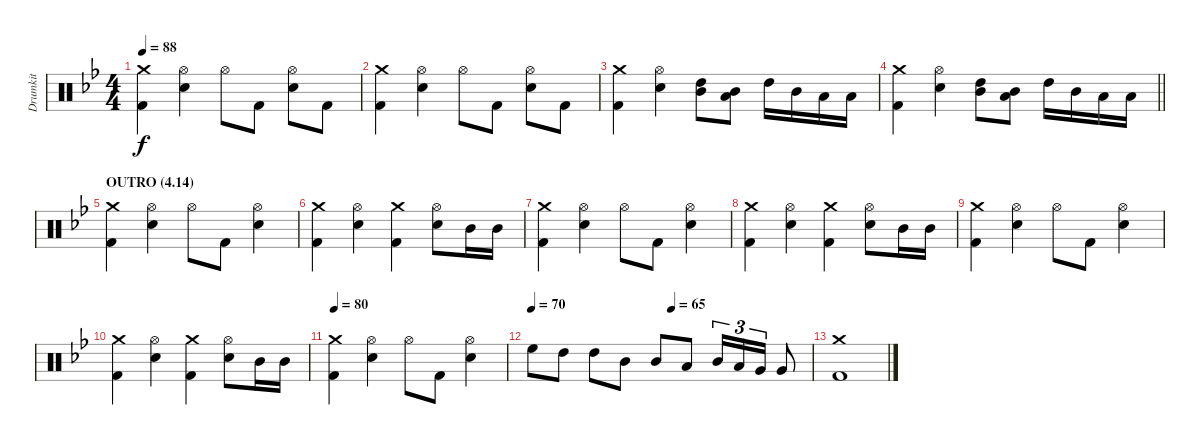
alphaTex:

\track ("Drumkit" "Drumkit") {instrument percussion}
\staff {score}
\articulation defaults
\ts (4 4)
\tempo 88
\clef neutral
\ks bb
("Kick (hit) 2" "Crash medium (hit)").4{dy f} ("Snare (hit) 2" "Hi-Hat (open)").4 "Hi-Hat (open)".8 "Kick (hit) 2".8 ("Snare (hit) 2" "Hi-Hat (open)").8 "Kick (hit) 2".8 |
("Kick (hit) 2" "Crash medium (hit)").4 ("Snare (hit) 2" "Hi-Hat (open)").4 "Hi-Hat (open)".8 "Kick (hit) 2".8 ("Snare (hit) 2" "Hi-Hat (open)").8 "Kick (hit) 2".8 |
("Kick (hit) 2" "Crash medium (hit)").4 ("Snare (hit) 2" "Hi-Hat (open)").4 ("High Tom (hit)" "Mid Tom (hit)").8 ("Mid Tom (hit)" "Low Tom (hit)").8 "High Tom (hit)".16 "Mid Tom (hit)".16 "Low Tom (hit)".16 "Low Tom (hit)".16 |
\barLineRight lightlight
("Kick (hit) 2" "Crash medium (hit)").4 ("Snare (hit) 2" "Hi-Hat (open)").4 ("High Tom (hit)" "Mid Tom (hit)").8 ("Mid Tom (hit)" "Low Tom (hit)").8 "High Tom (hit)".16 "Mid Tom (hit)".16 "Low Tom (hit)".16 "Low Tom (hit)".16 |
\section ("" "OUTRO (4.14)")
("Kick (hit) 2" "Crash medium (hit)").4 ("Snare (hit) 2" "Hi-Hat (open)").4 "Hi-Hat (open)".8 "Kick (hit) 2".8 ("Snare (hit) 2" "Hi-Hat (open)").4 |
("Kick (hit) 2" "Crash medium (hit)").4 ("Snare (hit) 2" "Hi-Hat (open)").4 ("Kick (hit) 2" "Crash medium (hit)").4 ("Snare (hit) 2" "Hi-Hat (open)").8 "Mid Tom (hit)".16 "Mid Tom (hit)".16 |
("Kick (hit) 2" "Crash medium (hit)").4 ("Snare (hit) 2" "Hi-Hat (open)").4 "Hi-Hat (open)".8 "Kick (hit) 2".8 ("Snare (hit) 2" "Hi-Hat (open)").4 |
("Kick (hit) 2" "Crash medium (hit)").4 ("Snare (hit) 2" "Hi-Hat (open)").4 ("Kick (hit) 2" "Crash medium (hit)").4 ("Snare (hit) 2" "Hi-Hat (open)").8 "Mid Tom (hit)".16 "Mid Tom (hit)".16 |
("Kick (hit) 2" "Crash medium (hit)").4 ("Snare (hit) 2" "Hi-Hat (open)").4 "Hi-Hat (open)".8 "Kick (hit) 2".8 ("Snare (hit) 2" "Hi-Hat (open)").4 |
("Kick (hit) 2" "Crash medium (hit)").4 ("Snare (hit) 2" "Hi-Hat (open)").4 ("Kick (hit) 2" "Crash medium (hit)").4 ("Snare (hit) 2" "Hi-Hat (open)").8 "Mid Tom (hit)".16 "Mid Tom (hit)".16 |
\tempo 80
("Kick (hit) 2" "Crash medium (hit)").4 ("Snare (hit) 2" "Hi-Hat (open)").4 "Hi-Hat (open)".8 "Kick (hit) 2".8 ("Snare (hit) 2" "Hi-Hat (open)").4 |
\tempo 70
\tempo (65 0.5)
"High Floor Tom (hit)".8 "High Tom (hit)".8 "High Tom (hit)".8 "Mid Tom (hit)".8 "Mid Tom (hit)".8 "Low Tom (hit)".8 "Mid Tom (hit)".16{tu (3 2)} "Low Tom (hit)".16{tu (3 2)} "Very Low Tom (hit)".16{tu (3 2)} "Very Low Tom (hit)".8 |
("Kick (hit) 2" "Crash medium (hit)").1
